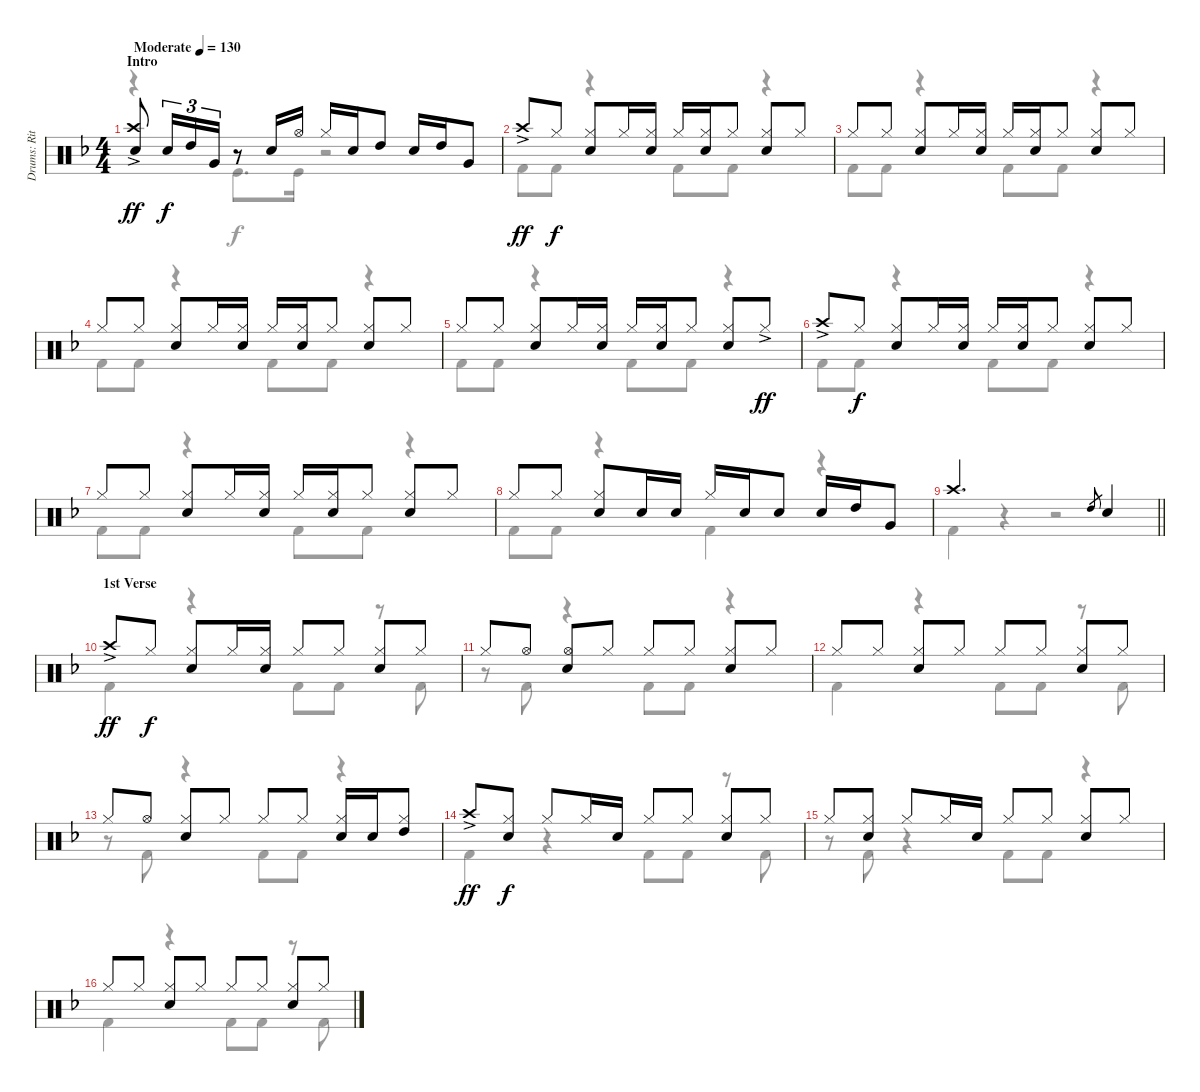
\track ("Drums: Ritsu Tianaka" "Drums: Rit") {instrument percussion}
\staff {score}
\articulation defaults
\voice
\ts (4 4)
\section ("" "Intro")
\tempo (130 "Moderate")
\clef neutral
\ks f
("Crash high (hit)"{ac} "Electric Snare (hit)").8{dy ff} "Electric Snare (hit)".16{tu (3 2) dy f} "High Tom (hit)".16{tu (3 2)} "Very Low Tom (hit)".16{tu (3 2)} r.8 "Electric Snare (hit)".16 "Hi-Hat (open)".16 "Hi-Hat (closed)".16 "Electric Snare (hit)".16 "High Tom (hit)".8 "Electric Snare (hit)".16 "High Tom (hit)".16 "Very Low Tom (hit)".8 |
"Crash high (hit)"{ac}.8{dy ff} "Hi-Hat (closed)".8{dy f} ("Hi-Hat (closed)" "Electric Snare (hit)").8 "Hi-Hat (closed)".16 ("Hi-Hat (closed)" "Electric Snare (hit)").16 "Hi-Hat (closed)".16 ("Hi-Hat (closed)" "Electric Snare (hit)").16 "Hi-Hat (closed)".8 ("Hi-Hat (closed)" "Electric Snare (hit)").8 "Hi-Hat (closed)".8 |
"Hi-Hat (closed)".8 "Hi-Hat (closed)".8 ("Hi-Hat (closed)" "Electric Snare (hit)").8 "Hi-Hat (closed)".16 ("Hi-Hat (closed)" "Electric Snare (hit)").16 "Hi-Hat (closed)".16 ("Hi-Hat (closed)" "Electric Snare (hit)").16 "Hi-Hat (closed)".8 ("Hi-Hat (closed)" "Electric Snare (hit)").8 "Hi-Hat (closed)".8 |
"Hi-Hat (closed)".8 "Hi-Hat (closed)".8 ("Hi-Hat (closed)" "Electric Snare (hit)").8 "Hi-Hat (closed)".16 ("Hi-Hat (closed)" "Electric Snare (hit)").16 "Hi-Hat (closed)".16 ("Hi-Hat (closed)" "Electric Snare (hit)").16 "Hi-Hat (closed)".8 ("Hi-Hat (closed)" "Electric Snare (hit)").8 "Hi-Hat (closed)".8 |
"Hi-Hat (closed)".8 "Hi-Hat (closed)".8 ("Hi-Hat (closed)" "Electric Snare (hit)").8 "Hi-Hat (closed)".16 ("Hi-Hat (closed)" "Electric Snare (hit)").16 "Hi-Hat (closed)".16 ("Hi-Hat (closed)" "Electric Snare (hit)").16 "Hi-Hat (closed)".8 ("Hi-Hat (closed)" "Electric Snare (hit)").8 "Hi-Hat (closed)"{ac}.8{dy ff} |
"Crash high (hit)"{ac}.8 "Hi-Hat (closed)".8{dy f} ("Hi-Hat (closed)" "Electric Snare (hit)").8 "Hi-Hat (closed)".16 ("Hi-Hat (closed)" "Electric Snare (hit)").16 "Hi-Hat (closed)".16 ("Hi-Hat (closed)" "Electric Snare (hit)").16 "Hi-Hat (closed)".8 ("Hi-Hat (closed)" "Electric Snare (hit)").8 "Hi-Hat (closed)".8 |
"Hi-Hat (closed)".8 "Hi-Hat (closed)".8 ("Hi-Hat (closed)" "Electric Snare (hit)").8 "Hi-Hat (closed)".16 ("Hi-Hat (closed)" "Electric Snare (hit)").16 "Hi-Hat (closed)".16 ("Hi-Hat (closed)" "Electric Snare (hit)").16 "Hi-Hat (closed)".8 ("Hi-Hat (closed)" "Electric Snare (hit)").8 "Hi-Hat (closed)".8 |
"Hi-Hat (closed)".8 "Hi-Hat (closed)".8 ("Hi-Hat (closed)" "Electric Snare (hit)").8 "Electric Snare (hit)".16 "Electric Snare (hit)".16 "Hi-Hat (closed)".16 "Electric Snare (hit)".16 "Electric Snare (hit)".8 "Electric Snare (hit)".16 "High Tom (hit)".16 "Very Low Tom (hit)".8 |
\barLineRight lightlight "Crash high (hit)".2{d} "High Tom (hit)".8{gr} "Electric Snare (hit)".4
|
\section ("" "1st Verse")
"Crash high (hit)"{ac}.8{dy ff} "Hi-Hat (closed)".8{dy f} ("Hi-Hat (closed)" "Electric Snare (hit)").8 "Hi-Hat (closed)".16 ("Hi-Hat (closed)" "Electric Snare (hit)").16 "Hi-Hat (closed)".8 "Hi-Hat (closed)".8 ("Hi-Hat (closed)" "Electric Snare (hit)").8 "Hi-Hat (closed)".8 |
"Hi-Hat (closed)".8 "Hi-Hat (open)".8 ("Hi-Hat (open)" "Electric Snare (hit)").8 "Hi-Hat (closed)".8 "Hi-Hat (closed)".8 "Hi-Hat (closed)".8 ("Hi-Hat (closed)" "Electric Snare (hit)").8 "Hi-Hat (closed)".8 |
"Hi-Hat (closed)".8 "Hi-Hat (closed)".8 ("Hi-Hat (closed)" "Electric Snare (hit)").8 "Hi-Hat (closed)".8 "Hi-Hat (closed)".8 "Hi-Hat (closed)".8 ("Hi-Hat (closed)" "Electric Snare (hit)").8 "Hi-Hat (closed)".8 |
"Hi-Hat (closed)".8 "Hi-Hat (open)".8 ("Hi-Hat (closed)" "Electric Snare (hit)").8 "Hi-Hat (closed)".8 "Hi-Hat (closed)".8 "Hi-Hat (closed)".8 ("Hi-Hat (closed)" "Electric Snare (hit)").16 "Electric Snare (hit)".16 ("Hi-Hat (closed)" "High Tom (hit)").8 |
"Crash high (hit)"{ac}.8{dy ff} ("Hi-Hat (closed)" "Electric Snare (hit)").8{dy f} "Hi-Hat (closed)".8 "Hi-Hat (closed)".16 "Electric Snare (hit)".16 "Hi-Hat (closed)".8 "Hi-Hat (closed)".8 ("Hi-Hat (closed)" "Electric Snare (hit)").8 "Hi-Hat (closed)".8 |
"Hi-Hat (closed)".8 ("Hi-Hat (closed)" "Electric Snare (hit)").8 "Hi-Hat (closed)".8 "Hi-Hat (closed)".16 "Electric Snare (hit)".16 "Hi-Hat (closed)".8 "Hi-Hat (closed)".8 ("Hi-Hat (closed)" "Electric Snare (hit)").8 "Hi-Hat (closed)".8 |
"Hi-Hat (closed)".8 "Hi-Hat (closed)".8 ("Hi-Hat (closed)" "Electric Snare (hit)").8 "Hi-Hat (closed)".8 "Hi-Hat (closed)".8 "Hi-Hat (closed)".8 ("Hi-Hat (closed)" "Electric Snare (hit)").8 "Hi-Hat (closed)".8
\voice
\clef neutral
\ottava regular
\simile none
\ks f
r.4{dy f} "Kick (hit)".8{d} "Kick (hit)".16 r.2 |
"Kick (hit) 2".8 "Kick (hit) 2".8 r.4 "Kick (hit) 2".8 "Kick (hit) 2".8 r.4 |
"Kick (hit) 2".8 "Kick (hit) 2".8 r.4 "Kick (hit) 2".8 "Kick (hit) 2".8 r.4 |
"Kick (hit) 2".8 "Kick (hit) 2".8 r.4 "Kick (hit) 2".8 "Kick (hit) 2".8 r.4 |
"Kick (hit) 2".8 "Kick (hit) 2".8 r.4 "Kick (hit) 2".8 "Kick (hit) 2".8 r.4 |
"Kick (hit) 2".8 "Kick (hit) 2".8 r.4 "Kick (hit) 2".8 "Kick (hit) 2".8 r.4 |
"Kick (hit) 2".8 "Kick (hit) 2".8 r.4 "Kick (hit) 2".8 "Kick (hit) 2".8 r.4 |
"Kick (hit) 2".8 "Kick (hit) 2".8 r.4 "Kick (hit) 2".4 r.4 |
\barLineRight lightlight "Kick (hit) 2".4
r.4 r.2 |
"Kick (hit) 2".4 r.4 "Kick (hit) 2".8 "Kick (hit) 2".8 r.8 "Kick (hit) 2".8 |
r.8 "Kick (hit) 2".8 r.4 "Kick (hit) 2".8 "Kick (hit) 2".8 r.4 |
"Kick (hit) 2".4 r.4 "Kick (hit) 2".8 "Kick (hit) 2".8 r.8 "Kick (hit) 2".8 |
r.8 "Kick (hit) 2".8 r.4 "Kick (hit) 2".8 "Kick (hit) 2".8 r.4 |
"Kick (hit) 2".4 r.4 "Kick (hit) 2".8 "Kick (hit) 2".8 r.8 "Kick (hit) 2".8 |
r.8 "Kick (hit) 2".8 r.4 "Kick (hit) 2".8 "Kick (hit) 2".8 r.4 |
"Kick (hit) 2".4 r.4 "Kick (hit) 2".8 "Kick (hit) 2".8 r.8 "Kick (hit) 2".8
